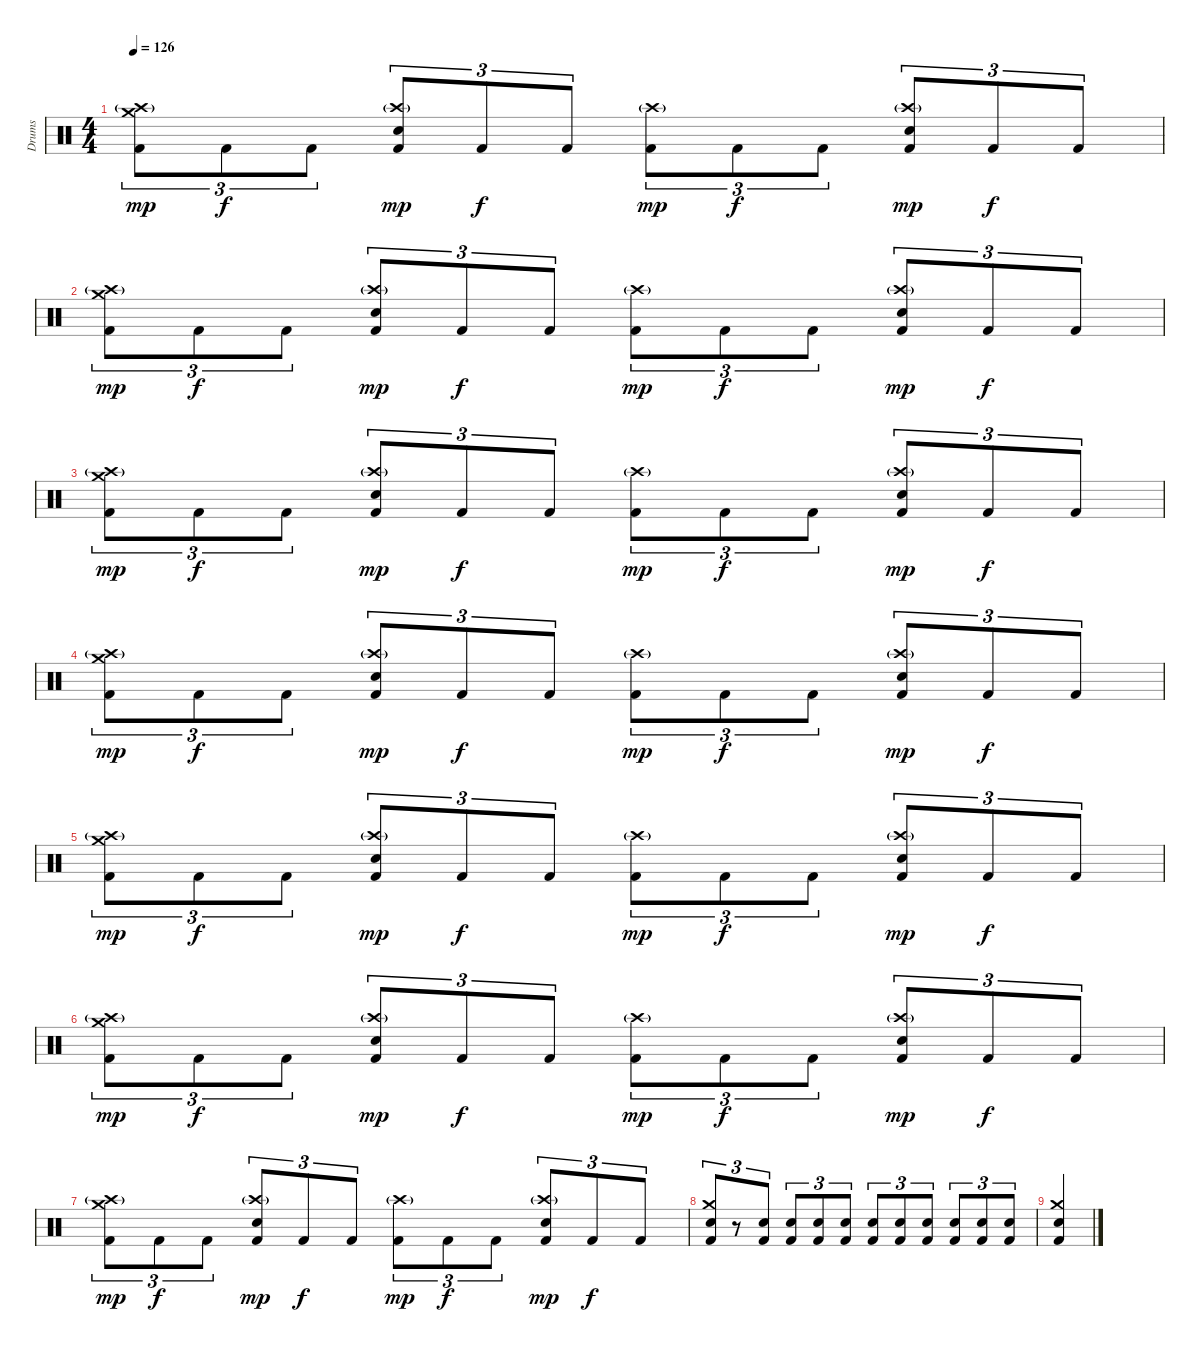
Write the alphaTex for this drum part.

\track ("Drums" "Drums") {instrument percussion}
\staff {score}
\articulation defaults
\ts (4 4)
\tempo 126
\clef neutral
\ks c
("Kick (hit) 2" "Crash medium (hit)" "Crash high (hit)"{g}).8{tu (3 2) dy mp} "Kick (hit) 2".8{tu (3 2) dy f} "Kick (hit) 2".8{tu (3 2)} ("Kick (hit) 2" "Snare (hit) 2" "Crash high (hit)"{g}).8{tu (3 2) dy mp} "Kick (hit) 2".8{tu (3 2) dy f} "Kick (hit) 2".8{tu (3 2)} ("Kick (hit) 2" "Crash high (hit)"{g}).8{tu (3 2) dy mp} "Kick (hit) 2".8{tu (3 2) dy f} "Kick (hit) 2".8{tu (3 2)} ("Kick (hit) 2" "Snare (hit) 2" "Crash high (hit)"{g}).8{tu (3 2) dy mp} "Kick (hit) 2".8{tu (3 2) dy f} "Kick (hit) 2".8{tu (3 2)} |
("Kick (hit) 2" "Crash medium (hit)" "Crash high (hit)"{g}).8{tu (3 2) dy mp} "Kick (hit) 2".8{tu (3 2) dy f} "Kick (hit) 2".8{tu (3 2)} ("Kick (hit) 2" "Snare (hit) 2" "Crash high (hit)"{g}).8{tu (3 2) dy mp} "Kick (hit) 2".8{tu (3 2) dy f} "Kick (hit) 2".8{tu (3 2)} ("Kick (hit) 2" "Crash high (hit)"{g}).8{tu (3 2) dy mp} "Kick (hit) 2".8{tu (3 2) dy f} "Kick (hit) 2".8{tu (3 2)} ("Kick (hit) 2" "Snare (hit) 2" "Crash high (hit)"{g}).8{tu (3 2) dy mp} "Kick (hit) 2".8{tu (3 2) dy f} "Kick (hit) 2".8{tu (3 2)} |
("Kick (hit) 2" "Crash medium (hit)" "Crash high (hit)"{g}).8{tu (3 2) dy mp} "Kick (hit) 2".8{tu (3 2) dy f} "Kick (hit) 2".8{tu (3 2)} ("Kick (hit) 2" "Snare (hit) 2" "Crash high (hit)"{g}).8{tu (3 2) dy mp} "Kick (hit) 2".8{tu (3 2) dy f} "Kick (hit) 2".8{tu (3 2)} ("Kick (hit) 2" "Crash high (hit)"{g}).8{tu (3 2) dy mp} "Kick (hit) 2".8{tu (3 2) dy f} "Kick (hit) 2".8{tu (3 2)} ("Kick (hit) 2" "Snare (hit) 2" "Crash high (hit)"{g}).8{tu (3 2) dy mp} "Kick (hit) 2".8{tu (3 2) dy f} "Kick (hit) 2".8{tu (3 2)} |
("Kick (hit) 2" "Crash medium (hit)" "Crash high (hit)"{g}).8{tu (3 2) dy mp} "Kick (hit) 2".8{tu (3 2) dy f} "Kick (hit) 2".8{tu (3 2)} ("Kick (hit) 2" "Snare (hit) 2" "Crash high (hit)"{g}).8{tu (3 2) dy mp} "Kick (hit) 2".8{tu (3 2) dy f} "Kick (hit) 2".8{tu (3 2)} ("Kick (hit) 2" "Crash high (hit)"{g}).8{tu (3 2) dy mp} "Kick (hit) 2".8{tu (3 2) dy f} "Kick (hit) 2".8{tu (3 2)} ("Kick (hit) 2" "Snare (hit) 2" "Crash high (hit)"{g}).8{tu (3 2) dy mp} "Kick (hit) 2".8{tu (3 2) dy f} "Kick (hit) 2".8{tu (3 2)} |
("Kick (hit) 2" "Crash medium (hit)" "Crash high (hit)"{g}).8{tu (3 2) dy mp} "Kick (hit) 2".8{tu (3 2) dy f} "Kick (hit) 2".8{tu (3 2)} ("Kick (hit) 2" "Snare (hit) 2" "Crash high (hit)"{g}).8{tu (3 2) dy mp} "Kick (hit) 2".8{tu (3 2) dy f} "Kick (hit) 2".8{tu (3 2)} ("Kick (hit) 2" "Crash high (hit)"{g}).8{tu (3 2) dy mp} "Kick (hit) 2".8{tu (3 2) dy f} "Kick (hit) 2".8{tu (3 2)} ("Kick (hit) 2" "Snare (hit) 2" "Crash high (hit)"{g}).8{tu (3 2) dy mp} "Kick (hit) 2".8{tu (3 2) dy f} "Kick (hit) 2".8{tu (3 2)} |
("Kick (hit) 2" "Crash medium (hit)" "Crash high (hit)"{g}).8{tu (3 2) dy mp} "Kick (hit) 2".8{tu (3 2) dy f} "Kick (hit) 2".8{tu (3 2)} ("Kick (hit) 2" "Snare (hit) 2" "Crash high (hit)"{g}).8{tu (3 2) dy mp} "Kick (hit) 2".8{tu (3 2) dy f} "Kick (hit) 2".8{tu (3 2)} ("Kick (hit) 2" "Crash high (hit)"{g}).8{tu (3 2) dy mp} "Kick (hit) 2".8{tu (3 2) dy f} "Kick (hit) 2".8{tu (3 2)} ("Kick (hit) 2" "Snare (hit) 2" "Crash high (hit)"{g}).8{tu (3 2) dy mp} "Kick (hit) 2".8{tu (3 2) dy f} "Kick (hit) 2".8{tu (3 2)} |
("Kick (hit) 2" "Crash medium (hit)" "Crash high (hit)"{g}).8{tu (3 2) dy mp} "Kick (hit) 2".8{tu (3 2) dy f} "Kick (hit) 2".8{tu (3 2)} ("Kick (hit) 2" "Snare (hit) 2" "Crash high (hit)"{g}).8{tu (3 2) dy mp} "Kick (hit) 2".8{tu (3 2) dy f} "Kick (hit) 2".8{tu (3 2)} ("Kick (hit) 2" "Crash high (hit)"{g}).8{tu (3 2) dy mp} "Kick (hit) 2".8{tu (3 2) dy f} "Kick (hit) 2".8{tu (3 2)} ("Kick (hit) 2" "Snare (hit) 2" "Crash high (hit)"{g}).8{tu (3 2) dy mp} "Kick (hit) 2".8{tu (3 2) dy f} "Kick (hit) 2".8{tu (3 2)} |
("Kick (hit) 2" "Snare (hit) 2" "Crash medium (hit)").8{tu (3 2)} r.8{tu (3 2)} ("Kick (hit) 2" "Snare (hit) 2").8{tu (3 2)} ("Kick (hit) 2" "Snare (hit) 2").8{tu (3 2)} ("Kick (hit) 2" "Snare (hit) 2").8{tu (3 2)} ("Kick (hit) 2" "Snare (hit) 2").8{tu (3 2)} ("Kick (hit) 2" "Snare (hit) 2").8{tu (3 2)} ("Kick (hit) 2" "Snare (hit) 2").8{tu (3 2)} ("Kick (hit) 2" "Snare (hit) 2").8{tu (3 2)} ("Kick (hit) 2" "Snare (hit) 2").8{tu (3 2)} ("Kick (hit) 2" "Snare (hit) 2").8{tu (3 2)} ("Kick (hit) 2" "Snare (hit) 2").8{tu (3 2)} |
("Kick (hit) 2" "Snare (hit) 2" "Crash medium (hit)").4
